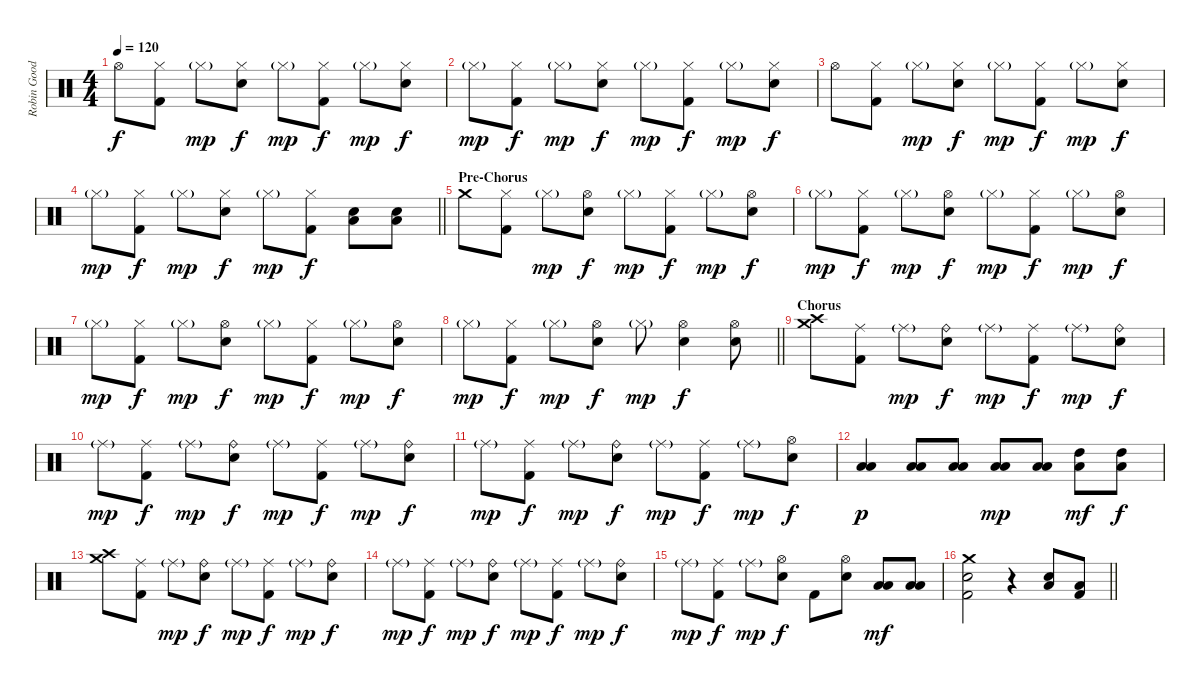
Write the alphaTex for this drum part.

\track ("Robin Goodridge: Drums" "Robin Good") {instrument percussion}
\staff {score}
\articulation defaults
\ts (4 4)
\tempo 120
\clef neutral
\ks c "Hi-Hat (open)".8{dy f}
("Hi-Hat (closed)" "Kick (hit) 2").8 "Hi-Hat (closed)"{g}.8{dy mp} ("Hi-Hat (closed)" "Electric Snare (hit)").8{dy f} "Hi-Hat (closed)"{g}.8{dy mp} ("Hi-Hat (closed)" "Kick (hit) 2").8{dy f} "Hi-Hat (closed)"{g}.8{dy mp} ("Hi-Hat (closed)" "Electric Snare (hit)").8{dy f} |
"Hi-Hat (closed)"{g}.8{dy mp} ("Hi-Hat (closed)" "Kick (hit) 2").8{dy f} "Hi-Hat (closed)"{g}.8{dy mp} ("Hi-Hat (closed)" "Electric Snare (hit)").8{dy f} "Hi-Hat (closed)"{g}.8{dy mp} ("Hi-Hat (closed)" "Kick (hit) 2").8{dy f} "Hi-Hat (closed)"{g}.8{dy mp} ("Hi-Hat (closed)" "Electric Snare (hit)").8{dy f} |
"Hi-Hat (open)".8 ("Hi-Hat (closed)" "Kick (hit) 2").8 "Hi-Hat (closed)"{g}.8{dy mp} ("Hi-Hat (closed)" "Electric Snare (hit)").8{dy f} "Hi-Hat (closed)"{g}.8{dy mp} ("Hi-Hat (closed)" "Kick (hit) 2").8{dy f} "Hi-Hat (closed)"{g}.8{dy mp} ("Hi-Hat (closed)" "Electric Snare (hit)").8{dy f} |
\barLineRight lightlight "Hi-Hat (closed)"{g}.8{dy mp}
("Hi-Hat (closed)" "Kick (hit) 2").8{dy f} "Hi-Hat (closed)"{g}.8{dy mp} ("Hi-Hat (closed)" "Electric Snare (hit)").8{dy f} "Hi-Hat (closed)"{g}.8{dy mp} ("Hi-Hat (closed)" "Kick (hit) 2").8{dy f} ("Electric Snare (hit)" "Low Floor Tom (hit)").8 ("Electric Snare (hit)" "Low Floor Tom (hit)").8 |
\section ("" "Pre-Chorus")
"Crash medium (hit)".8 ("Hi-Hat (closed)" "Kick (hit) 2").8 "Hi-Hat (closed)"{g}.8{dy mp} ("Hi-Hat (open)" "Electric Snare (hit)").8{dy f} "Hi-Hat (closed)"{g}.8{dy mp} ("Hi-Hat (closed)" "Kick (hit) 2").8{dy f} "Hi-Hat (closed)"{g}.8{dy mp} ("Hi-Hat (open)" "Electric Snare (hit)").8{dy f} |
"Hi-Hat (closed)"{g}.8{dy mp} ("Hi-Hat (closed)" "Kick (hit) 2").8{dy f} "Hi-Hat (closed)"{g}.8{dy mp} ("Hi-Hat (open)" "Electric Snare (hit)").8{dy f} "Hi-Hat (closed)"{g}.8{dy mp} ("Hi-Hat (closed)" "Kick (hit) 2").8{dy f} "Hi-Hat (closed)"{g}.8{dy mp} ("Hi-Hat (open)" "Electric Snare (hit)").8{dy f} |
"Hi-Hat (closed)"{g}.8{dy mp} ("Hi-Hat (closed)" "Kick (hit) 2").8{dy f} "Hi-Hat (closed)"{g}.8{dy mp} ("Hi-Hat (open)" "Electric Snare (hit)").8{dy f} "Hi-Hat (closed)"{g}.8{dy mp} ("Hi-Hat (closed)" "Kick (hit) 2").8{dy f} "Hi-Hat (closed)"{g}.8{dy mp} ("Hi-Hat (open)" "Electric Snare (hit)").8{dy f} |
\barLineRight lightlight "Hi-Hat (closed)"{g}.8{dy mp}
("Hi-Hat (closed)" "Kick (hit) 2").8{dy f} "Hi-Hat (closed)"{g}.8{dy mp} ("Hi-Hat (open)" "Electric Snare (hit)").8{dy f} "Hi-Hat (closed)"{g}.8{dy mp} ("Hi-Hat (open)" "Electric Snare (hit)").4{dy f} ("Hi-Hat (open)" "Electric Snare (hit)").8 |
\section ("" "Chorus")
("Crash high (hit)" "Crash medium (hit)").8 ("Ride (middle)" "Kick (hit) 2").8 "Ride (middle)"{g}.8{dy mp} ("Ride (bell)" "Electric Snare (hit)").8{dy f} "Ride (middle)"{g}.8{dy mp} ("Ride (middle)" "Kick (hit) 2").8{dy f} "Ride (middle)"{g}.8{dy mp} ("Ride (bell)" "Electric Snare (hit)").8{dy f} |
"Ride (middle)"{g}.8{dy mp} ("Ride (middle)" "Kick (hit) 2").8{dy f} "Ride (middle)"{g}.8{dy mp} ("Ride (bell)" "Electric Snare (hit)").8{dy f} "Ride (middle)"{g}.8{dy mp} ("Ride (middle)" "Kick (hit) 2").8{dy f} "Ride (middle)"{g}.8{dy mp} ("Ride (bell)" "Electric Snare (hit)").8{dy f} |
"Ride (middle)"{g}.8{dy mp} ("Ride (middle)" "Kick (hit) 2").8{dy f} "Ride (middle)"{g}.8{dy mp} ("Ride (bell)" "Electric Snare (hit)").8{dy f} "Ride (middle)"{g}.8{dy mp} ("Ride (middle)" "Kick (hit) 2").8{dy f} "Ride (middle)"{g}.8{dy mp} ("Hi-Hat (open)" "Electric Snare (hit)").8{dy f} |
("Low Tom (hit)" "Low Floor Tom (hit)").4{dy p} ("Low Tom (hit)" "Low Floor Tom (hit)").8 ("Low Tom (hit)" "Low Floor Tom (hit)").8 ("Low Tom (hit)" "Low Floor Tom (hit)").8{dy mp} ("Low Tom (hit)" "Low Floor Tom (hit)").8 ("High Tom (hit)" "Low Floor Tom (hit)").8{dy mf} ("High Tom (hit)" "Low Floor Tom (hit)").8{dy f} |
("Crash high (hit)" "Crash medium (hit)").8 ("Ride (middle)" "Kick (hit) 2").8 "Ride (middle)"{g}.8{dy mp} ("Ride (bell)" "Electric Snare (hit)").8{dy f} "Ride (middle)"{g}.8{dy mp} ("Ride (middle)" "Kick (hit) 2").8{dy f} "Ride (middle)"{g}.8{dy mp} ("Ride (bell)" "Electric Snare (hit)").8{dy f} |
"Ride (middle)"{g}.8{dy mp} ("Ride (middle)" "Kick (hit) 2").8{dy f} "Ride (middle)"{g}.8{dy mp} ("Ride (bell)" "Electric Snare (hit)").8{dy f} "Ride (middle)"{g}.8{dy mp} ("Ride (middle)" "Kick (hit) 2").8{dy f} "Ride (middle)"{g}.8{dy mp} ("Ride (bell)" "Electric Snare (hit)").8{dy f} |
"Ride (middle)"{g}.8{dy mp} ("Ride (middle)" "Kick (hit) 2").8{dy f} "Ride (middle)"{g}.8{dy mp} ("Hi-Hat (open)" "Electric Snare (hit)").8{dy f} "Kick (hit) 2".8 ("Hi-Hat (open)" "Electric Snare (hit)").8 ("Low Floor Tom (hit)" "Low Tom (hit)").8{dy mf} ("Low Floor Tom (hit)" "Low Tom (hit)").8 |
\barLineRight lightlight
("Crash medium (hit)" "Electric Snare (hit)" "Kick (hit) 2").2 r.4 ("Electric Snare (hit)" "Low Floor Tom (hit)").8 ("Kick (hit) 2" "Low Floor Tom (hit)").8
